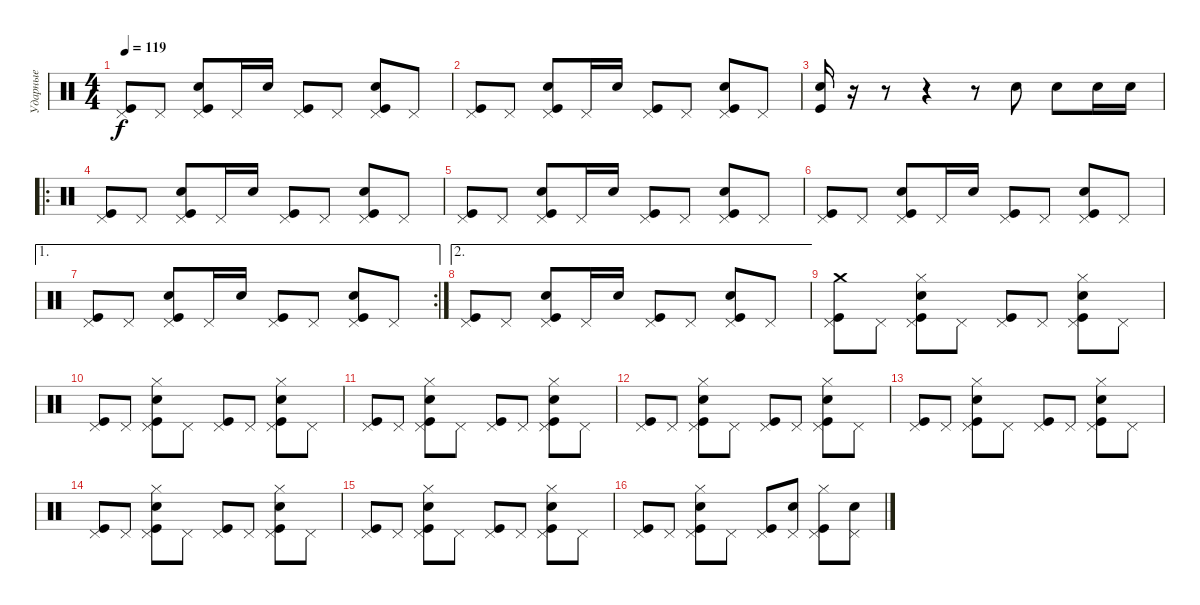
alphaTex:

\track ("Ударные" "Ударные") {instrument percussion}
\staff {score}
\articulation defaults
\ts (4 4)
\tempo 119
\clef neutral
\ks c
("Kick (hit)" "Pedal Hi-Hat (hit)").8{dy f} "Pedal Hi-Hat (hit)".8 ("Kick (hit)" "Electric Snare (hit)" "Pedal Hi-Hat (hit)").8 "Pedal Hi-Hat (hit)".16 "Electric Snare (hit)".16 ("Kick (hit)" "Pedal Hi-Hat (hit)").8 "Pedal Hi-Hat (hit)".8 ("Kick (hit)" "Electric Snare (hit)" "Pedal Hi-Hat (hit)").8 "Pedal Hi-Hat (hit)".8 |
("Kick (hit)" "Pedal Hi-Hat (hit)").8 "Pedal Hi-Hat (hit)".8 ("Kick (hit)" "Electric Snare (hit)" "Pedal Hi-Hat (hit)").8 "Pedal Hi-Hat (hit)".16 "Electric Snare (hit)".16 ("Kick (hit)" "Pedal Hi-Hat (hit)").8 "Pedal Hi-Hat (hit)".8 ("Kick (hit)" "Electric Snare (hit)" "Pedal Hi-Hat (hit)").8 "Pedal Hi-Hat (hit)".8 |
("Kick (hit)" "Electric Snare (hit)").16 r.16 r.8 r.4 r.8 "Electric Snare (hit)".8 "Electric Snare (hit)".8 "Electric Snare (hit)".16 "Electric Snare (hit)".16 |
\ro
("Kick (hit)" "Pedal Hi-Hat (hit)").8 "Pedal Hi-Hat (hit)".8 ("Kick (hit)" "Electric Snare (hit)" "Pedal Hi-Hat (hit)").8 "Pedal Hi-Hat (hit)".16 "Electric Snare (hit)".16 ("Kick (hit)" "Pedal Hi-Hat (hit)").8 "Pedal Hi-Hat (hit)".8 ("Kick (hit)" "Electric Snare (hit)" "Pedal Hi-Hat (hit)").8 "Pedal Hi-Hat (hit)".8 |
("Kick (hit)" "Pedal Hi-Hat (hit)").8 "Pedal Hi-Hat (hit)".8 ("Kick (hit)" "Electric Snare (hit)" "Pedal Hi-Hat (hit)").8 "Pedal Hi-Hat (hit)".16 "Electric Snare (hit)".16 ("Kick (hit)" "Pedal Hi-Hat (hit)").8 "Pedal Hi-Hat (hit)".8 ("Kick (hit)" "Electric Snare (hit)" "Pedal Hi-Hat (hit)").8 "Pedal Hi-Hat (hit)".8 |
("Kick (hit)" "Pedal Hi-Hat (hit)").8 "Pedal Hi-Hat (hit)".8 ("Kick (hit)" "Electric Snare (hit)" "Pedal Hi-Hat (hit)").8 "Pedal Hi-Hat (hit)".16 "Electric Snare (hit)".16 ("Kick (hit)" "Pedal Hi-Hat (hit)").8 "Pedal Hi-Hat (hit)".8 ("Kick (hit)" "Electric Snare (hit)" "Pedal Hi-Hat (hit)").8 "Pedal Hi-Hat (hit)".8 |
\ae 1
\rc 2
("Kick (hit)" "Pedal Hi-Hat (hit)").8 "Pedal Hi-Hat (hit)".8 ("Kick (hit)" "Electric Snare (hit)" "Pedal Hi-Hat (hit)").8 "Pedal Hi-Hat (hit)".16 "Electric Snare (hit)".16 ("Kick (hit)" "Pedal Hi-Hat (hit)").8 "Pedal Hi-Hat (hit)".8 ("Kick (hit)" "Electric Snare (hit)" "Pedal Hi-Hat (hit)").8 "Pedal Hi-Hat (hit)".8 |
\ae 2
("Kick (hit)" "Pedal Hi-Hat (hit)").8 "Pedal Hi-Hat (hit)".8 ("Kick (hit)" "Electric Snare (hit)" "Pedal Hi-Hat (hit)").8 "Pedal Hi-Hat (hit)".16 "Electric Snare (hit)".16 ("Kick (hit)" "Pedal Hi-Hat (hit)").8 "Pedal Hi-Hat (hit)".8 ("Kick (hit)" "Electric Snare (hit)" "Pedal Hi-Hat (hit)").8 "Pedal Hi-Hat (hit)".8 |
("Kick (hit)" "Pedal Hi-Hat (hit)" "Crash medium (hit)").8 "Pedal Hi-Hat (hit)".8 ("Kick (hit)" "Pedal Hi-Hat (hit)" "Hi-Hat (closed)" "Electric Snare (hit)").8 "Pedal Hi-Hat (hit)".8 ("Kick (hit)" "Pedal Hi-Hat (hit)").8 "Pedal Hi-Hat (hit)".8 ("Kick (hit)" "Pedal Hi-Hat (hit)" "Hi-Hat (closed)" "Electric Snare (hit)").8 "Pedal Hi-Hat (hit)".8 |
("Kick (hit)" "Pedal Hi-Hat (hit)").8 "Pedal Hi-Hat (hit)".8 ("Kick (hit)" "Pedal Hi-Hat (hit)" "Hi-Hat (closed)" "Electric Snare (hit)").8 "Pedal Hi-Hat (hit)".8 ("Kick (hit)" "Pedal Hi-Hat (hit)").8 "Pedal Hi-Hat (hit)".8 ("Kick (hit)" "Pedal Hi-Hat (hit)" "Hi-Hat (closed)" "Electric Snare (hit)").8 "Pedal Hi-Hat (hit)".8 |
("Kick (hit)" "Pedal Hi-Hat (hit)").8 "Pedal Hi-Hat (hit)".8 ("Kick (hit)" "Pedal Hi-Hat (hit)" "Hi-Hat (closed)" "Electric Snare (hit)").8 "Pedal Hi-Hat (hit)".8 ("Kick (hit)" "Pedal Hi-Hat (hit)").8 "Pedal Hi-Hat (hit)".8 ("Kick (hit)" "Pedal Hi-Hat (hit)" "Hi-Hat (closed)" "Electric Snare (hit)").8 "Pedal Hi-Hat (hit)".8 |
("Kick (hit)" "Pedal Hi-Hat (hit)").8 "Pedal Hi-Hat (hit)".8 ("Kick (hit)" "Pedal Hi-Hat (hit)" "Hi-Hat (closed)" "Electric Snare (hit)").8 "Pedal Hi-Hat (hit)".8 ("Kick (hit)" "Pedal Hi-Hat (hit)").8 "Pedal Hi-Hat (hit)".8 ("Kick (hit)" "Pedal Hi-Hat (hit)" "Hi-Hat (closed)" "Electric Snare (hit)").8 "Pedal Hi-Hat (hit)".8 |
("Kick (hit)" "Pedal Hi-Hat (hit)").8 "Pedal Hi-Hat (hit)".8 ("Kick (hit)" "Pedal Hi-Hat (hit)" "Hi-Hat (closed)" "Electric Snare (hit)").8 "Pedal Hi-Hat (hit)".8 ("Kick (hit)" "Pedal Hi-Hat (hit)").8 "Pedal Hi-Hat (hit)".8 ("Kick (hit)" "Pedal Hi-Hat (hit)" "Hi-Hat (closed)" "Electric Snare (hit)").8 "Pedal Hi-Hat (hit)".8 |
("Kick (hit)" "Pedal Hi-Hat (hit)").8 "Pedal Hi-Hat (hit)".8 ("Kick (hit)" "Pedal Hi-Hat (hit)" "Hi-Hat (closed)" "Electric Snare (hit)").8 "Pedal Hi-Hat (hit)".8 ("Kick (hit)" "Pedal Hi-Hat (hit)").8 "Pedal Hi-Hat (hit)".8 ("Kick (hit)" "Pedal Hi-Hat (hit)" "Hi-Hat (closed)" "Electric Snare (hit)").8 "Pedal Hi-Hat (hit)".8 |
("Kick (hit)" "Pedal Hi-Hat (hit)").8 "Pedal Hi-Hat (hit)".8 ("Kick (hit)" "Pedal Hi-Hat (hit)" "Hi-Hat (closed)" "Electric Snare (hit)").8 "Pedal Hi-Hat (hit)".8 ("Kick (hit)" "Pedal Hi-Hat (hit)").8 "Pedal Hi-Hat (hit)".8 ("Kick (hit)" "Pedal Hi-Hat (hit)" "Hi-Hat (closed)" "Electric Snare (hit)").8 "Pedal Hi-Hat (hit)".8 |
("Kick (hit)" "Pedal Hi-Hat (hit)").8 "Pedal Hi-Hat (hit)".8 ("Kick (hit)" "Pedal Hi-Hat (hit)" "Hi-Hat (closed)" "Electric Snare (hit)").8 "Pedal Hi-Hat (hit)".8 ("Kick (hit)" "Pedal Hi-Hat (hit)").8 ("Pedal Hi-Hat (hit)" "Electric Snare (hit)").8 ("Kick (hit)" "Pedal Hi-Hat (hit)" "Hi-Hat (closed)").8 ("Pedal Hi-Hat (hit)" "Electric Snare (hit)").8
